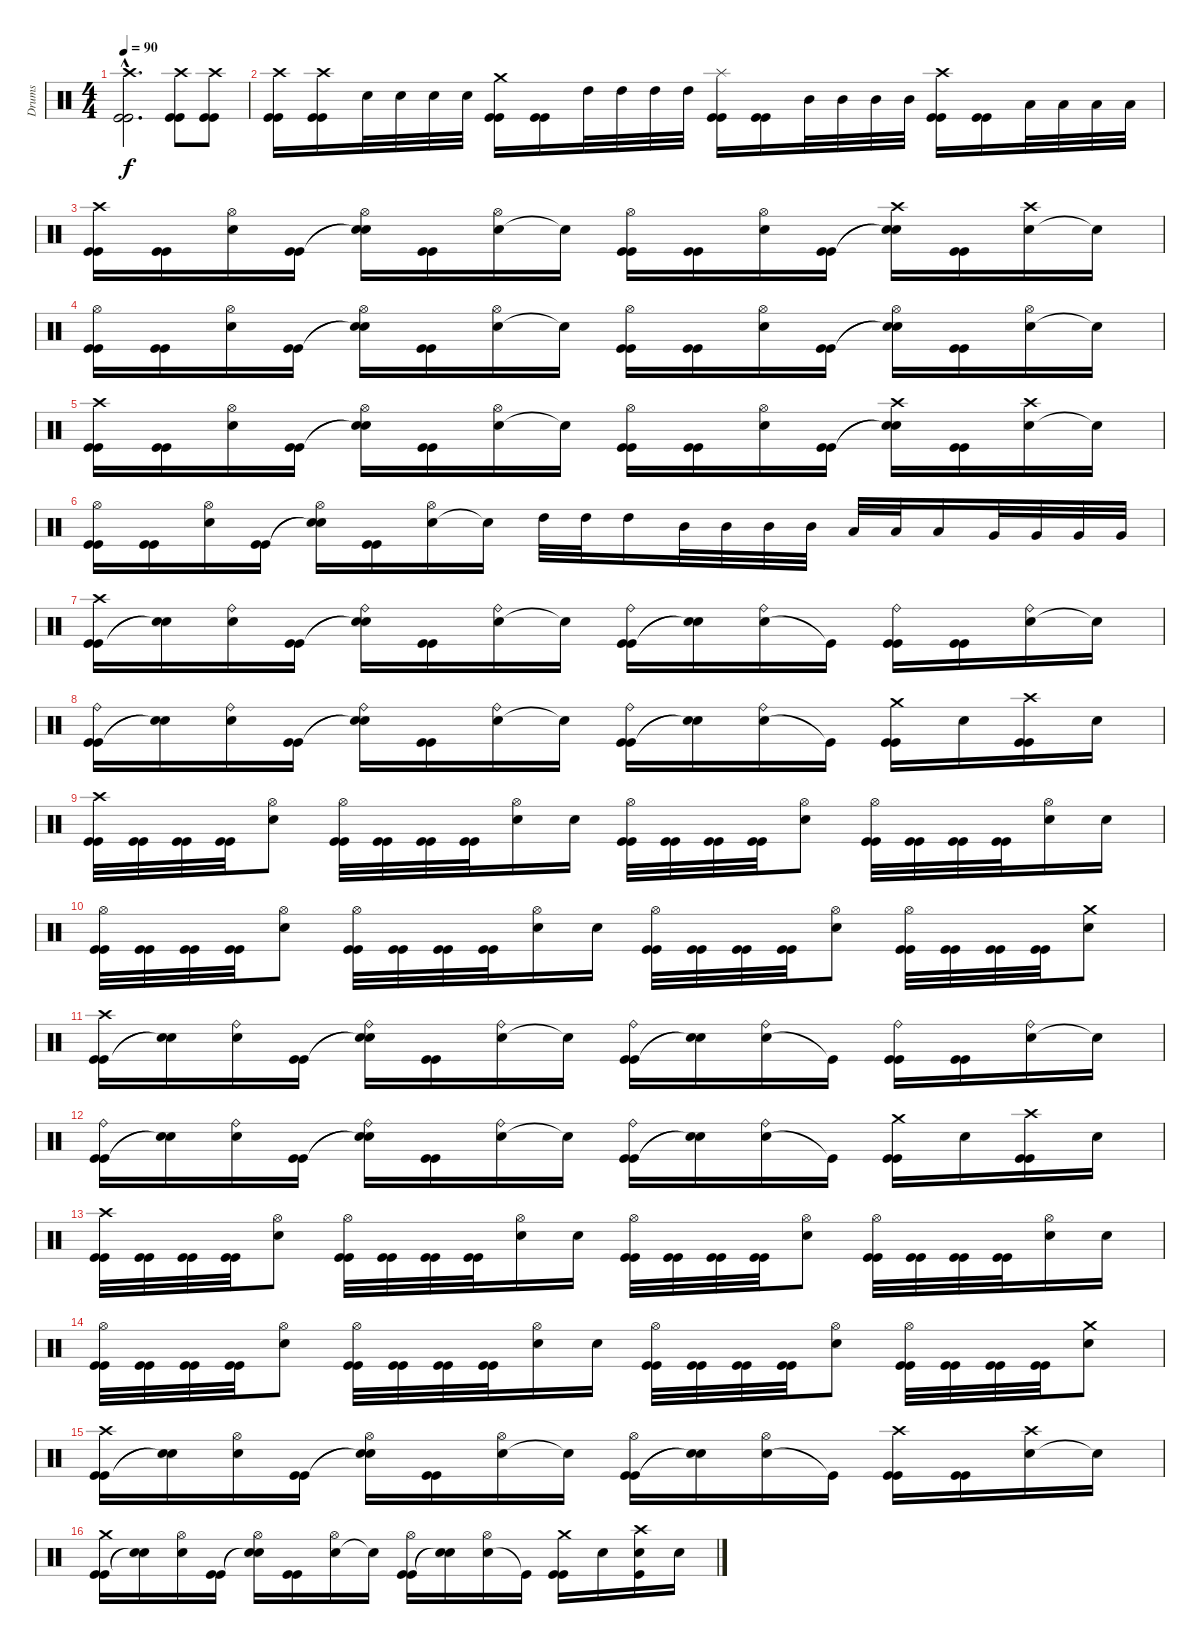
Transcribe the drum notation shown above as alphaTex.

\track ("Drums" "Drums") {instrument percussion}
\staff {score}
\articulation defaults
\ts (4 4)
\tempo 90
\clef neutral
\ks c
("Kick (hit)"{hac} "Kick (hit)"{hac} "Crash high (hit)"{hac}).2{d dy f} ("Kick (hit)" "Crash high (hit)" "Kick (hit)").8 ("Kick (hit)" "Crash high (hit)" "Kick (hit)").8 |
("Kick (hit)" "Kick (hit)" "Crash high (hit)").16 ("Kick (hit)" "Kick (hit)" "Crash high (hit)").16 "Snare (hit) 2".32 "Snare (hit) 2".32 "Snare (hit) 2".32 "Snare (hit) 2".32 ("Kick (hit)" "Kick (hit)" "Crash medium (hit)").16 ("Kick (hit)" "Kick (hit)").16 "High Tom (hit)".32 "High Tom (hit)".32 "High Tom (hit)".32 "High Tom (hit)".32 ("Kick (hit)" "Kick (hit)" "Splash (hit)").16 ("Kick (hit)" "Kick (hit)").16 "Mid Tom (hit)".32 "Mid Tom (hit)".32 "Mid Tom (hit)".32 "Mid Tom (hit)".32 ("Kick (hit)" "Kick (hit)" "Crash high (hit)").16 ("Kick (hit)" "Kick (hit)").16 "Low Tom (hit)".32 "Low Tom (hit)".32 "Low Tom (hit)".32 "Low Tom (hit)".32 |
("Kick (hit)" "Kick (hit)" "Crash high (hit)").16 ("Kick (hit)" "Kick (hit)").16 ("Snare (hit) 2" "Hi-Hat (open)").16 ("Kick (hit)" "Kick (hit)").16 ("Snare (hit)"{t} "Snare (hit)"{t} "Hi-Hat (open)").16 ("Kick (hit)" "Kick (hit)").16 ("Snare (hit) 2" "Hi-Hat (open)").16 "Snare (hit)"{t}.16 ("Kick (hit)" "Kick (hit)" "Hi-Hat (open)").16 ("Kick (hit)" "Kick (hit)").16 ("Snare (hit) 2" "Hi-Hat (open)").16 ("Kick (hit)" "Kick (hit)").16 ("Snare (hit)"{t} "Snare (hit)"{t} "Crash high (hit)").16 ("Kick (hit)" "Kick (hit)").16 ("Snare (hit) 2" "Crash high (hit)").16 "Snare (hit)"{t}.16 |
("Kick (hit)" "Kick (hit)" "Hi-Hat (open)").16 ("Kick (hit)" "Kick (hit)").16 ("Snare (hit) 2" "Hi-Hat (open)").16 ("Kick (hit)" "Kick (hit)").16 ("Snare (hit)"{t} "Snare (hit)"{t} "Hi-Hat (open)").16 ("Kick (hit)" "Kick (hit)").16 ("Snare (hit) 2" "Hi-Hat (open)").16 "Snare (hit)"{t}.16 ("Kick (hit)" "Kick (hit)" "Hi-Hat (open)").16 ("Kick (hit)" "Kick (hit)").16 ("Snare (hit) 2" "Hi-Hat (open)").16 ("Kick (hit)" "Kick (hit)").16 ("Snare (hit)"{t} "Snare (hit)"{t} "Hi-Hat (open)").16 ("Kick (hit)" "Kick (hit)").16 ("Snare (hit) 2" "Hi-Hat (open)").16 "Snare (hit)"{t}.16 |
("Kick (hit)" "Kick (hit)" "Crash high (hit)").16 ("Kick (hit)" "Kick (hit)").16 ("Snare (hit) 2" "Hi-Hat (open)").16 ("Kick (hit)" "Kick (hit)").16 ("Snare (hit)"{t} "Snare (hit)"{t} "Hi-Hat (open)").16 ("Kick (hit)" "Kick (hit)").16 ("Snare (hit) 2" "Hi-Hat (open)").16 "Snare (hit)"{t}.16 ("Kick (hit)" "Kick (hit)" "Hi-Hat (open)").16 ("Kick (hit)" "Kick (hit)").16 ("Snare (hit) 2" "Hi-Hat (open)").16 ("Kick (hit)" "Kick (hit)").16 ("Snare (hit)"{t} "Snare (hit)"{t} "Crash high (hit)").16 ("Kick (hit)" "Kick (hit)").16 ("Snare (hit) 2" "Crash high (hit)").16 "Snare (hit)"{t}.16 |
("Kick (hit)" "Kick (hit)" "Hi-Hat (open)").16 ("Kick (hit)" "Kick (hit)").16 ("Snare (hit) 2" "Hi-Hat (open)").16 ("Kick (hit)" "Kick (hit)").16 ("Snare (hit)"{t} "Snare (hit)"{t} "Hi-Hat (open)").16 ("Kick (hit)" "Kick (hit)").16 ("Snare (hit) 2" "Hi-Hat (open)").16 "Snare (hit)"{t}.16 "High Tom (hit)".32 "High Tom (hit)".32 "High Tom (hit)".16 "Mid Tom (hit)".32 "Mid Tom (hit)".32 "Mid Tom (hit)".32 "Mid Tom (hit)".32 "Low Tom (hit)".32 "Low Tom (hit)".32 "Low Tom (hit)".16 "Very Low Tom (hit)".32 "Very Low Tom (hit)".32 "Very Low Tom (hit)".32 "Very Low Tom (hit)".32 |
("Kick (hit)" "Kick (hit)" "Crash high (hit)").16 ("Snare (hit) 2"{t} "Snare (hit)"{t}).16 ("Snare (hit) 2" "Ride (bell)").16 ("Kick (hit)" "Kick (hit)").16 ("Snare (hit)"{t} "Snare (hit) 2"{t} "Ride (bell)").16 ("Kick (hit)" "Kick (hit)").16 ("Snare (hit) 2" "Ride (bell)").16 "Snare (hit)"{t}.16 ("Kick (hit)" "Kick (hit)" "Ride (bell)").16 ("Snare (hit) 2"{t} "Snare (hit)"{t}).16 ("Snare (hit) 2" "Ride (bell)").16 "Kick (hit)"{t}.16 ("Kick (hit)" "Kick (hit)" "Ride (bell)").16 ("Kick (hit)" "Kick (hit)").16 ("Snare (hit) 2" "Ride (bell)").16 "Snare (hit)"{t}.16 |
("Kick (hit)" "Kick (hit)" "Ride (bell)").16 ("Snare (hit) 2"{t} "Snare (hit)"{t}).16 ("Snare (hit) 2" "Ride (bell)").16 ("Kick (hit)" "Kick (hit)").16 ("Snare (hit)"{t} "Snare (hit) 2"{t} "Ride (bell)").16 ("Kick (hit)" "Kick (hit)").16 ("Snare (hit) 2" "Ride (bell)").16 "Snare (hit)"{t}.16 ("Kick (hit)" "Kick (hit)" "Ride (bell)").16 ("Snare (hit) 2"{t} "Snare (hit)"{t}).16 ("Snare (hit) 2" "Ride (bell)").16 "Kick (hit)"{t}.16 ("Kick (hit)" "Kick (hit)" "Crash medium (hit)").16 "Snare (hit) 2".16 ("Kick (hit)" "Kick (hit)" "Crash high (hit)").16 "Snare (hit) 2".16 |
("Kick (hit)" "Kick (hit)" "Crash high (hit)").32 ("Kick (hit)" "Kick (hit)").32 ("Kick (hit)" "Kick (hit)").32 ("Kick (hit)" "Kick (hit)").32 ("Snare (hit) 2" "Hi-Hat (open)").8 ("Kick (hit)" "Kick (hit)" "Hi-Hat (open)").32 ("Kick (hit)" "Kick (hit)").32 ("Kick (hit)" "Kick (hit)").32 ("Kick (hit)" "Kick (hit)").32 ("Snare (hit) 2" "Hi-Hat (open)").16 "Snare (hit) 2".16 ("Kick (hit)" "Kick (hit)" "Hi-Hat (open)").32 ("Kick (hit)" "Kick (hit)").32 ("Kick (hit)" "Kick (hit)").32 ("Kick (hit)" "Kick (hit)").32 ("Snare (hit) 2" "Hi-Hat (open)").8 ("Kick (hit)" "Kick (hit)" "Hi-Hat (open)").32 ("Kick (hit)" "Kick (hit)").32 ("Kick (hit)" "Kick (hit)").32 ("Kick (hit)" "Kick (hit)").32 ("Snare (hit) 2" "Hi-Hat (open)").16 "Snare (hit) 2".16 |
("Kick (hit)" "Kick (hit)" "Hi-Hat (open)").32 ("Kick (hit)" "Kick (hit)").32 ("Kick (hit)" "Kick (hit)").32 ("Kick (hit)" "Kick (hit)").32 ("Snare (hit) 2" "Hi-Hat (open)").8 ("Kick (hit)" "Kick (hit)" "Hi-Hat (open)").32 ("Kick (hit)" "Kick (hit)").32 ("Kick (hit)" "Kick (hit)").32 ("Kick (hit)" "Kick (hit)").32 ("Snare (hit) 2" "Hi-Hat (open)").16 "Snare (hit) 2".16 ("Kick (hit)" "Kick (hit)" "Hi-Hat (open)").32 ("Kick (hit)" "Kick (hit)").32 ("Kick (hit)" "Kick (hit)").32 ("Kick (hit)" "Kick (hit)").32 ("Snare (hit) 2" "Hi-Hat (open)").8 ("Kick (hit)" "Kick (hit)" "Hi-Hat (open)").32 ("Kick (hit)" "Kick (hit)").32 ("Kick (hit)" "Kick (hit)").32 ("Kick (hit)" "Kick (hit)").32 ("Snare (hit) 2" "Crash medium (hit)").8 |
("Kick (hit)" "Kick (hit)" "Crash high (hit)").16 ("Snare (hit) 2"{t} "Snare (hit)"{t}).16 ("Snare (hit) 2" "Ride (bell)").16 ("Kick (hit)" "Kick (hit)").16 ("Snare (hit)"{t} "Snare (hit) 2"{t} "Ride (bell)").16 ("Kick (hit)" "Kick (hit)").16 ("Snare (hit) 2" "Ride (bell)").16 "Snare (hit)"{t}.16 ("Kick (hit)" "Kick (hit)" "Ride (bell)").16 ("Snare (hit) 2"{t} "Snare (hit)"{t}).16 ("Snare (hit) 2" "Ride (bell)").16 "Kick (hit)"{t}.16 ("Kick (hit)" "Kick (hit)" "Ride (bell)").16 ("Kick (hit)" "Kick (hit)").16 ("Snare (hit) 2" "Ride (bell)").16 "Snare (hit)"{t}.16 |
("Kick (hit)" "Kick (hit)" "Ride (bell)").16 ("Snare (hit) 2"{t} "Snare (hit)"{t}).16 ("Snare (hit) 2" "Ride (bell)").16 ("Kick (hit)" "Kick (hit)").16 ("Snare (hit)"{t} "Snare (hit) 2"{t} "Ride (bell)").16 ("Kick (hit)" "Kick (hit)").16 ("Snare (hit) 2" "Ride (bell)").16 "Snare (hit)"{t}.16 ("Kick (hit)" "Kick (hit)" "Ride (bell)").16 ("Snare (hit) 2"{t} "Snare (hit)"{t}).16 ("Snare (hit) 2" "Ride (bell)").16 "Kick (hit)"{t}.16 ("Kick (hit)" "Kick (hit)" "Crash medium (hit)").16 "Snare (hit) 2".16 ("Kick (hit)" "Kick (hit)" "Crash high (hit)").16 "Snare (hit) 2".16 |
("Kick (hit)" "Kick (hit)" "Crash high (hit)").32 ("Kick (hit)" "Kick (hit)").32 ("Kick (hit)" "Kick (hit)").32 ("Kick (hit)" "Kick (hit)").32 ("Snare (hit) 2" "Hi-Hat (open)").8 ("Kick (hit)" "Kick (hit)" "Hi-Hat (open)").32 ("Kick (hit)" "Kick (hit)").32 ("Kick (hit)" "Kick (hit)").32 ("Kick (hit)" "Kick (hit)").32 ("Snare (hit) 2" "Hi-Hat (open)").16 "Snare (hit) 2".16 ("Kick (hit)" "Kick (hit)" "Hi-Hat (open)").32 ("Kick (hit)" "Kick (hit)").32 ("Kick (hit)" "Kick (hit)").32 ("Kick (hit)" "Kick (hit)").32 ("Snare (hit) 2" "Hi-Hat (open)").8 ("Kick (hit)" "Kick (hit)" "Hi-Hat (open)").32 ("Kick (hit)" "Kick (hit)").32 ("Kick (hit)" "Kick (hit)").32 ("Kick (hit)" "Kick (hit)").32 ("Snare (hit) 2" "Hi-Hat (open)").16 "Snare (hit) 2".16 |
("Kick (hit)" "Kick (hit)" "Hi-Hat (open)").32 ("Kick (hit)" "Kick (hit)").32 ("Kick (hit)" "Kick (hit)").32 ("Kick (hit)" "Kick (hit)").32 ("Snare (hit) 2" "Hi-Hat (open)").8 ("Kick (hit)" "Kick (hit)" "Hi-Hat (open)").32 ("Kick (hit)" "Kick (hit)").32 ("Kick (hit)" "Kick (hit)").32 ("Kick (hit)" "Kick (hit)").32 ("Snare (hit) 2" "Hi-Hat (open)").16 "Snare (hit) 2".16 ("Kick (hit)" "Kick (hit)" "Hi-Hat (open)").32 ("Kick (hit)" "Kick (hit)").32 ("Kick (hit)" "Kick (hit)").32 ("Kick (hit)" "Kick (hit)").32 ("Snare (hit) 2" "Hi-Hat (open)").8 ("Kick (hit)" "Kick (hit)" "Hi-Hat (open)").32 ("Kick (hit)" "Kick (hit)").32 ("Kick (hit)" "Kick (hit)").32 ("Kick (hit)" "Kick (hit)").32 ("Snare (hit) 2" "Crash medium (hit)").8 |
("Kick (hit)" "Kick (hit)" "Crash high (hit)").16 ("Snare (hit) 2"{t} "Snare (hit)"{t}).16 ("Snare (hit) 2" "Hi-Hat (open)").16 ("Kick (hit)" "Kick (hit)").16 ("Snare (hit)"{t} "Snare (hit) 2"{t} "Hi-Hat (open)").16 ("Kick (hit)" "Kick (hit)").16 ("Snare (hit) 2" "Hi-Hat (open)").16 "Snare (hit)"{t}.16 ("Kick (hit)" "Kick (hit)" "Hi-Hat (open)").16 ("Snare (hit) 2"{t} "Snare (hit)"{t}).16 ("Snare (hit) 2" "Hi-Hat (open)").16 "Kick (hit)"{t}.16 ("Kick (hit)" "Kick (hit)" "Crash high (hit)").16 ("Kick (hit)" "Kick (hit)").16 ("Snare (hit) 2" "Crash high (hit)").16 "Snare (hit)"{t}.16 |
("Kick (hit)" "Kick (hit)" "Crash medium (hit)").16 ("Snare (hit) 2"{t} "Snare (hit)"{t}).16 ("Snare (hit) 2" "Hi-Hat (open)").16 ("Kick (hit)" "Kick (hit)").16 ("Snare (hit)"{t} "Snare (hit) 2"{t} "Hi-Hat (open)").16 ("Kick (hit)" "Kick (hit)").16 ("Snare (hit) 2" "Hi-Hat (open)").16 "Snare (hit)"{t}.16 ("Kick (hit)" "Kick (hit)" "Hi-Hat (open)").16 ("Snare (hit) 2"{t} "Snare (hit)"{t}).16 ("Snare (hit) 2" "Hi-Hat (open)").16 "Kick (hit)"{t}.16 ("Kick (hit)" "Kick (hit)" "Crash medium (hit)").16 "Snare (hit) 2".16 ("Kick (hit)" "Snare (hit) 2" "Crash high (hit)").16 "Snare (hit) 2".16
